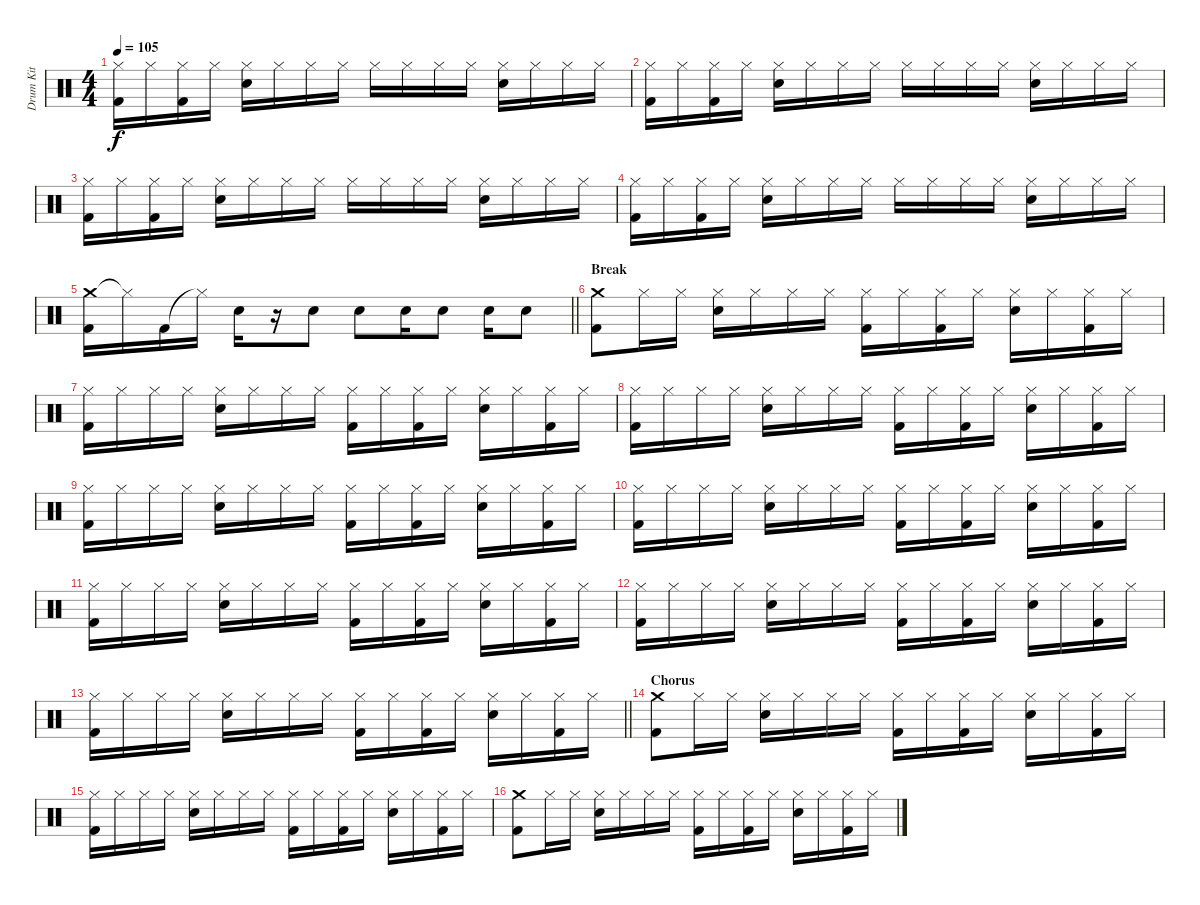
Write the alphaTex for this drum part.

\track ("Drum Kit" "Drum Kit") {instrument percussion}
\staff {score}
\articulation defaults
\ts (4 4)
\tempo 105
\clef neutral
\ks c
("Hi-Hat (closed)" "Kick (hit) 2").16{dy f} "Hi-Hat (closed)".16 ("Hi-Hat (closed)" "Kick (hit) 2").16 "Hi-Hat (closed)".16 ("Hi-Hat (closed)" "Electric Snare (hit)").16 "Hi-Hat (closed)".16 "Hi-Hat (closed)".16 "Hi-Hat (closed)".16 "Hi-Hat (closed)".16 "Hi-Hat (closed)".16 "Hi-Hat (closed)".16 "Hi-Hat (closed)".16 ("Hi-Hat (closed)" "Electric Snare (hit)").16 "Hi-Hat (closed)".16 "Hi-Hat (closed)".16 "Hi-Hat (closed)".16 |
("Hi-Hat (closed)" "Kick (hit) 2").16 "Hi-Hat (closed)".16 ("Hi-Hat (closed)" "Kick (hit) 2").16 "Hi-Hat (closed)".16 ("Hi-Hat (closed)" "Electric Snare (hit)").16 "Hi-Hat (closed)".16 "Hi-Hat (closed)".16 "Hi-Hat (closed)".16 "Hi-Hat (closed)".16 "Hi-Hat (closed)".16 "Hi-Hat (closed)".16 "Hi-Hat (closed)".16 ("Hi-Hat (closed)" "Electric Snare (hit)").16 "Hi-Hat (closed)".16 "Hi-Hat (closed)".16 "Hi-Hat (closed)".16 |
("Hi-Hat (closed)" "Kick (hit) 2").16 "Hi-Hat (closed)".16 ("Hi-Hat (closed)" "Kick (hit) 2").16 "Hi-Hat (closed)".16 ("Hi-Hat (closed)" "Electric Snare (hit)").16 "Hi-Hat (closed)".16 "Hi-Hat (closed)".16 "Hi-Hat (closed)".16 "Hi-Hat (closed)".16 "Hi-Hat (closed)".16 "Hi-Hat (closed)".16 "Hi-Hat (closed)".16 ("Hi-Hat (closed)" "Electric Snare (hit)").16 "Hi-Hat (closed)".16 "Hi-Hat (closed)".16 "Hi-Hat (closed)".16 |
("Hi-Hat (closed)" "Kick (hit) 2").16 "Hi-Hat (closed)".16 ("Hi-Hat (closed)" "Kick (hit) 2").16 "Hi-Hat (closed)".16 ("Hi-Hat (closed)" "Electric Snare (hit)").16 "Hi-Hat (closed)".16 "Hi-Hat (closed)".16 "Hi-Hat (closed)".16 "Hi-Hat (closed)".16 "Hi-Hat (closed)".16 "Hi-Hat (closed)".16 "Hi-Hat (closed)".16 ("Hi-Hat (closed)" "Electric Snare (hit)").16 "Hi-Hat (closed)".16 "Hi-Hat (closed)".16 "Hi-Hat (closed)".16 |
\barLineRight lightlight
("Crash medium (hit)" "Kick (hit) 2").16 "Hi-Hat (closed)"{t}.16 "Kick (hit) 2".16 "Hi-Hat (closed)"{t}.16 "Electric Snare (hit)".16 r.16 "Electric Snare (hit)".8 "Electric Snare (hit)".8 "Electric Snare (hit)".16 "Electric Snare (hit)".8 "Electric Snare (hit)".16 "Electric Snare (hit)".8 |
\section ("" "Break")
("Crash medium (hit)" "Kick (hit) 2").8 "Hi-Hat (closed)".16 "Hi-Hat (closed)".16 ("Hi-Hat (closed)" "Electric Snare (hit)").16 "Hi-Hat (closed)".16 "Hi-Hat (closed)".16 "Hi-Hat (closed)".16 ("Hi-Hat (closed)" "Kick (hit) 2").16 "Hi-Hat (closed)".16 ("Hi-Hat (closed)" "Kick (hit) 2").16 "Hi-Hat (closed)".16 ("Hi-Hat (closed)" "Electric Snare (hit)").16 "Hi-Hat (closed)".16 ("Hi-Hat (closed)" "Kick (hit) 2").16 "Hi-Hat (closed)".16 |
("Hi-Hat (closed)" "Kick (hit) 2").16 "Hi-Hat (closed)".16 "Hi-Hat (closed)".16 "Hi-Hat (closed)".16 ("Hi-Hat (closed)" "Electric Snare (hit)").16 "Hi-Hat (closed)".16 "Hi-Hat (closed)".16 "Hi-Hat (closed)".16 ("Hi-Hat (closed)" "Kick (hit) 2").16 "Hi-Hat (closed)".16 ("Hi-Hat (closed)" "Kick (hit) 2").16 "Hi-Hat (closed)".16 ("Hi-Hat (closed)" "Electric Snare (hit)").16 "Hi-Hat (closed)".16 ("Hi-Hat (closed)" "Kick (hit) 2").16 "Hi-Hat (closed)".16 |
("Hi-Hat (closed)" "Kick (hit) 2").16 "Hi-Hat (closed)".16 "Hi-Hat (closed)".16 "Hi-Hat (closed)".16 ("Hi-Hat (closed)" "Electric Snare (hit)").16 "Hi-Hat (closed)".16 "Hi-Hat (closed)".16 "Hi-Hat (closed)".16 ("Hi-Hat (closed)" "Kick (hit) 2").16 "Hi-Hat (closed)".16 ("Hi-Hat (closed)" "Kick (hit) 2").16 "Hi-Hat (closed)".16 ("Hi-Hat (closed)" "Electric Snare (hit)").16 "Hi-Hat (closed)".16 ("Hi-Hat (closed)" "Kick (hit) 2").16 "Hi-Hat (closed)".16 |
("Hi-Hat (closed)" "Kick (hit) 2").16 "Hi-Hat (closed)".16 "Hi-Hat (closed)".16 "Hi-Hat (closed)".16 ("Hi-Hat (closed)" "Electric Snare (hit)").16 "Hi-Hat (closed)".16 "Hi-Hat (closed)".16 "Hi-Hat (closed)".16 ("Hi-Hat (closed)" "Kick (hit) 2").16 "Hi-Hat (closed)".16 ("Hi-Hat (closed)" "Kick (hit) 2").16 "Hi-Hat (closed)".16 ("Hi-Hat (closed)" "Electric Snare (hit)").16 "Hi-Hat (closed)".16 ("Hi-Hat (closed)" "Kick (hit) 2").16 "Hi-Hat (closed)".16 |
("Hi-Hat (closed)" "Kick (hit) 2").16 "Hi-Hat (closed)".16 "Hi-Hat (closed)".16 "Hi-Hat (closed)".16 ("Hi-Hat (closed)" "Electric Snare (hit)").16 "Hi-Hat (closed)".16 "Hi-Hat (closed)".16 "Hi-Hat (closed)".16 ("Hi-Hat (closed)" "Kick (hit) 2").16 "Hi-Hat (closed)".16 ("Hi-Hat (closed)" "Kick (hit) 2").16 "Hi-Hat (closed)".16 ("Hi-Hat (closed)" "Electric Snare (hit)").16 "Hi-Hat (closed)".16 ("Hi-Hat (closed)" "Kick (hit) 2").16 "Hi-Hat (closed)".16 |
("Hi-Hat (closed)" "Kick (hit) 2").16 "Hi-Hat (closed)".16 "Hi-Hat (closed)".16 "Hi-Hat (closed)".16 ("Hi-Hat (closed)" "Electric Snare (hit)").16 "Hi-Hat (closed)".16 "Hi-Hat (closed)".16 "Hi-Hat (closed)".16 ("Hi-Hat (closed)" "Kick (hit) 2").16 "Hi-Hat (closed)".16 ("Hi-Hat (closed)" "Kick (hit) 2").16 "Hi-Hat (closed)".16 ("Hi-Hat (closed)" "Electric Snare (hit)").16 "Hi-Hat (closed)".16 ("Hi-Hat (closed)" "Kick (hit) 2").16 "Hi-Hat (closed)".16 |
("Hi-Hat (closed)" "Kick (hit) 2").16 "Hi-Hat (closed)".16 "Hi-Hat (closed)".16 "Hi-Hat (closed)".16 ("Hi-Hat (closed)" "Electric Snare (hit)").16 "Hi-Hat (closed)".16 "Hi-Hat (closed)".16 "Hi-Hat (closed)".16 ("Hi-Hat (closed)" "Kick (hit) 2").16 "Hi-Hat (closed)".16 ("Hi-Hat (closed)" "Kick (hit) 2").16 "Hi-Hat (closed)".16 ("Hi-Hat (closed)" "Electric Snare (hit)").16 "Hi-Hat (closed)".16 ("Hi-Hat (closed)" "Kick (hit) 2").16 "Hi-Hat (closed)".16 |
\barLineRight lightlight
("Hi-Hat (closed)" "Kick (hit) 2").16 "Hi-Hat (closed)".16 "Hi-Hat (closed)".16 "Hi-Hat (closed)".16 ("Hi-Hat (closed)" "Electric Snare (hit)").16 "Hi-Hat (closed)".16 "Hi-Hat (closed)".16 "Hi-Hat (closed)".16 ("Hi-Hat (closed)" "Kick (hit) 2").16 "Hi-Hat (closed)".16 ("Hi-Hat (closed)" "Kick (hit) 2").16 "Hi-Hat (closed)".16 ("Hi-Hat (closed)" "Electric Snare (hit)").16 "Hi-Hat (closed)".16 ("Hi-Hat (closed)" "Kick (hit) 2").16 "Hi-Hat (closed)".16 |
\section ("" "Chorus")
("Crash medium (hit)" "Kick (hit) 2").8 "Hi-Hat (closed)".16 "Hi-Hat (closed)".16 ("Hi-Hat (closed)" "Electric Snare (hit)").16 "Hi-Hat (closed)".16 "Hi-Hat (closed)".16 "Hi-Hat (closed)".16 ("Hi-Hat (closed)" "Kick (hit) 2").16 "Hi-Hat (closed)".16 ("Hi-Hat (closed)" "Kick (hit) 2").16 "Hi-Hat (closed)".16 ("Hi-Hat (closed)" "Electric Snare (hit)").16 "Hi-Hat (closed)".16 ("Hi-Hat (closed)" "Kick (hit) 2").16 "Hi-Hat (closed)".16 |
("Hi-Hat (closed)" "Kick (hit) 2").16 "Hi-Hat (closed)".16 "Hi-Hat (closed)".16 "Hi-Hat (closed)".16 ("Hi-Hat (closed)" "Electric Snare (hit)").16 "Hi-Hat (closed)".16 "Hi-Hat (closed)".16 "Hi-Hat (closed)".16 ("Hi-Hat (closed)" "Kick (hit) 2").16 "Hi-Hat (closed)".16 ("Hi-Hat (closed)" "Kick (hit) 2").16 "Hi-Hat (closed)".16 ("Hi-Hat (closed)" "Electric Snare (hit)").16 "Hi-Hat (closed)".16 ("Hi-Hat (closed)" "Kick (hit) 2").16 "Hi-Hat (closed)".16 |
("Crash medium (hit)" "Kick (hit) 2").8 "Hi-Hat (closed)".16 "Hi-Hat (closed)".16 ("Hi-Hat (closed)" "Electric Snare (hit)").16 "Hi-Hat (closed)".16 "Hi-Hat (closed)".16 "Hi-Hat (closed)".16 ("Hi-Hat (closed)" "Kick (hit) 2").16 "Hi-Hat (closed)".16 ("Hi-Hat (closed)" "Kick (hit) 2").16 "Hi-Hat (closed)".16 ("Hi-Hat (closed)" "Electric Snare (hit)").16 "Hi-Hat (closed)".16 ("Hi-Hat (closed)" "Kick (hit) 2").16 "Hi-Hat (closed)".16
